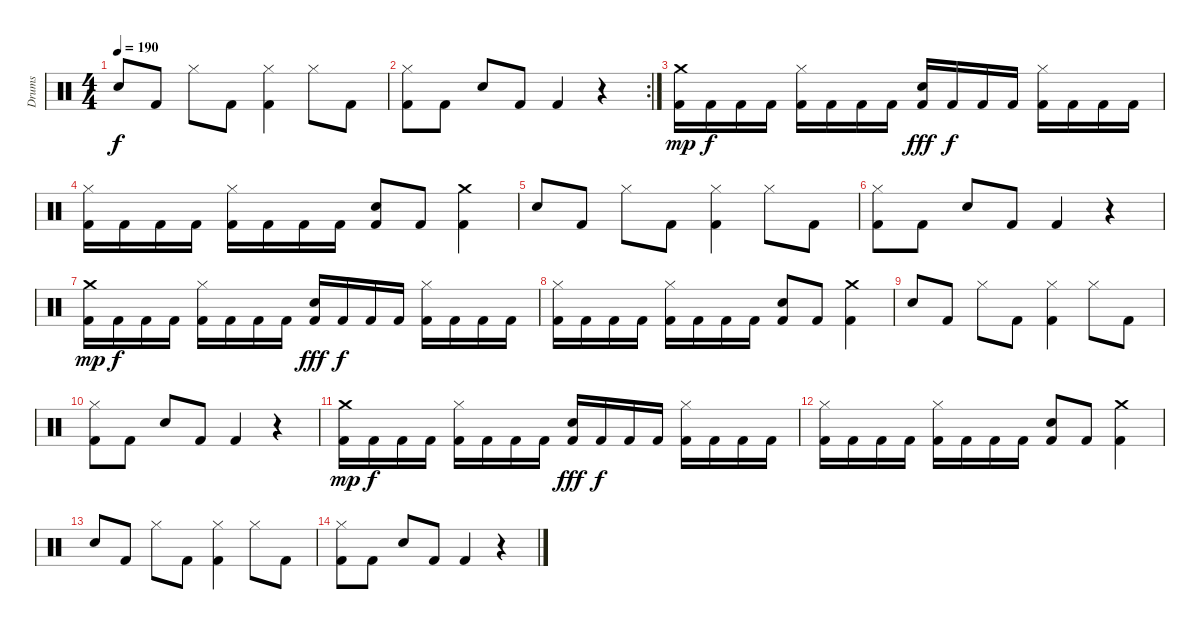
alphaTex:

\track ("Drums" "Drums") {instrument percussion}
\staff {score}
\articulation defaults
\ts (4 4)
\tempo 190
\clef neutral
\ks c "Electric Snare (hit)".8{dy f} "Kick (hit) 2".8 "Hi-Hat (closed)".8 "Kick (hit) 2".8
("Hi-Hat (closed)" "Kick (hit) 2").4 "Hi-Hat (closed)".8 "Kick (hit) 2".8 |
\rc 2
("Hi-Hat (closed)" "Kick (hit) 2").8 "Kick (hit) 2".8 "Electric Snare (hit)".8 "Kick (hit) 2".8 "Kick (hit) 2".4 r.4 |
("Crash medium (hit)" "Kick (hit) 2").16{dy mp} "Kick (hit) 2".16{dy f} "Kick (hit) 2".16 "Kick (hit) 2".16 ("Hi-Hat (closed)" "Kick (hit) 2").16 "Kick (hit) 2".16 "Kick (hit) 2".16 "Kick (hit) 2".16 ("Electric Snare (hit)" "Kick (hit) 2").16{dy fff} "Kick (hit) 2".16{dy f} "Kick (hit) 2".16 "Kick (hit) 2".16 ("Hi-Hat (closed)" "Kick (hit) 2").16 "Kick (hit) 2".16 "Kick (hit) 2".16 "Kick (hit) 2".16 |
("Hi-Hat (closed)" "Kick (hit) 2").16 "Kick (hit) 2".16 "Kick (hit) 2".16 "Kick (hit) 2".16 ("Hi-Hat (closed)" "Kick (hit) 2").16 "Kick (hit) 2".16 "Kick (hit) 2".16 "Kick (hit) 2".16 ("Electric Snare (hit)" "Kick (hit) 2").8 "Kick (hit) 2".8 ("Crash medium (hit)" "Kick (hit) 2").4 |
"Electric Snare (hit)".8 "Kick (hit) 2".8 "Hi-Hat (closed)".8 "Kick (hit) 2".8 ("Hi-Hat (closed)" "Kick (hit) 2").4 "Hi-Hat (closed)".8 "Kick (hit) 2".8 |
("Hi-Hat (closed)" "Kick (hit) 2").8 "Kick (hit) 2".8 "Electric Snare (hit)".8 "Kick (hit) 2".8 "Kick (hit) 2".4 r.4 |
("Crash medium (hit)" "Kick (hit) 2").16{dy mp} "Kick (hit) 2".16{dy f} "Kick (hit) 2".16 "Kick (hit) 2".16 ("Hi-Hat (closed)" "Kick (hit) 2").16 "Kick (hit) 2".16 "Kick (hit) 2".16 "Kick (hit) 2".16 ("Electric Snare (hit)" "Kick (hit) 2").16{dy fff} "Kick (hit) 2".16{dy f} "Kick (hit) 2".16 "Kick (hit) 2".16 ("Hi-Hat (closed)" "Kick (hit) 2").16 "Kick (hit) 2".16 "Kick (hit) 2".16 "Kick (hit) 2".16 |
("Hi-Hat (closed)" "Kick (hit) 2").16 "Kick (hit) 2".16 "Kick (hit) 2".16 "Kick (hit) 2".16 ("Hi-Hat (closed)" "Kick (hit) 2").16 "Kick (hit) 2".16 "Kick (hit) 2".16 "Kick (hit) 2".16 ("Electric Snare (hit)" "Kick (hit) 2").8 "Kick (hit) 2".8 ("Crash medium (hit)" "Kick (hit) 2").4 |
"Electric Snare (hit)".8 "Kick (hit) 2".8 "Hi-Hat (closed)".8 "Kick (hit) 2".8 ("Hi-Hat (closed)" "Kick (hit) 2").4 "Hi-Hat (closed)".8 "Kick (hit) 2".8 |
("Hi-Hat (closed)" "Kick (hit) 2").8 "Kick (hit) 2".8 "Electric Snare (hit)".8 "Kick (hit) 2".8 "Kick (hit) 2".4 r.4 |
("Crash medium (hit)" "Kick (hit) 2").16{dy mp} "Kick (hit) 2".16{dy f} "Kick (hit) 2".16 "Kick (hit) 2".16 ("Hi-Hat (closed)" "Kick (hit) 2").16 "Kick (hit) 2".16 "Kick (hit) 2".16 "Kick (hit) 2".16 ("Electric Snare (hit)" "Kick (hit) 2").16{dy fff} "Kick (hit) 2".16{dy f} "Kick (hit) 2".16 "Kick (hit) 2".16 ("Hi-Hat (closed)" "Kick (hit) 2").16 "Kick (hit) 2".16 "Kick (hit) 2".16 "Kick (hit) 2".16 |
("Hi-Hat (closed)" "Kick (hit) 2").16 "Kick (hit) 2".16 "Kick (hit) 2".16 "Kick (hit) 2".16 ("Hi-Hat (closed)" "Kick (hit) 2").16 "Kick (hit) 2".16 "Kick (hit) 2".16 "Kick (hit) 2".16 ("Electric Snare (hit)" "Kick (hit) 2").8 "Kick (hit) 2".8 ("Crash medium (hit)" "Kick (hit) 2").4 |
"Electric Snare (hit)".8 "Kick (hit) 2".8 "Hi-Hat (closed)".8 "Kick (hit) 2".8 ("Hi-Hat (closed)" "Kick (hit) 2").4 "Hi-Hat (closed)".8 "Kick (hit) 2".8 |
("Hi-Hat (closed)" "Kick (hit) 2").8 "Kick (hit) 2".8 "Electric Snare (hit)".8 "Kick (hit) 2".8 "Kick (hit) 2".4 r.4
